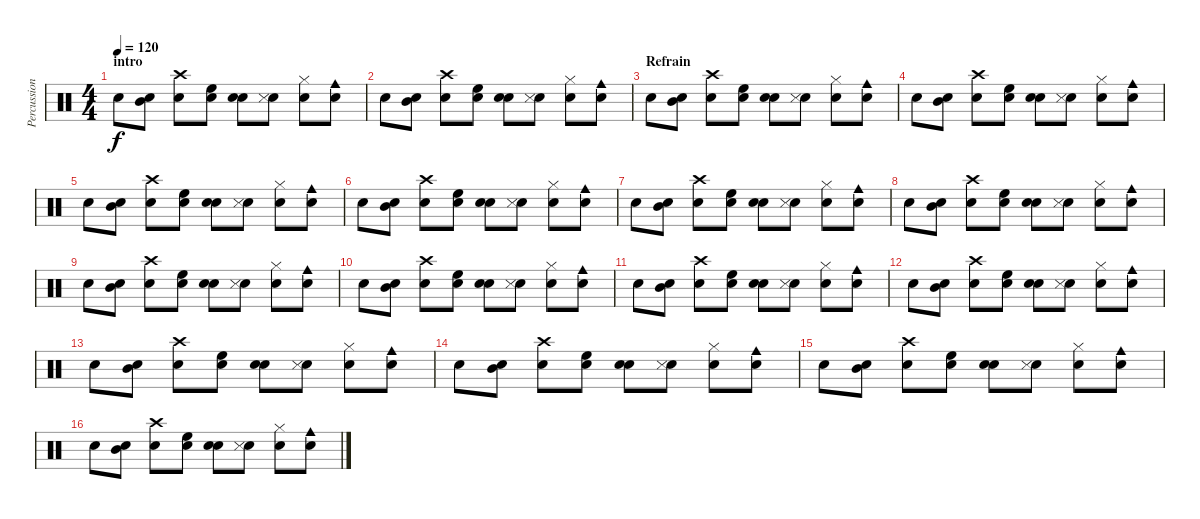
\track ("Percussions" "Percussion") {instrument percussion}
\staff {score}
\articulation defaults
\ts (4 4)
\section ("" "intro")
\tempo 120
\clef neutral
\ks c "Snare (hit) 2".8{dy f}
("Snare (hit) 2" "Mid Tom (hit)").8 ("Snare (hit) 2" "Crash high (hit)").8 ("Snare (hit) 2" "High Floor Tom (hit)").8 ("Snare (hit) 2" "Snare (hit) 2").8 ("Snare (hit) 2" "Snare (side stick) 3").8 ("Snare (hit) 2" "Hi-Hat (closed)").8 ("Snare (hit) 2" "Cowbell medium (hit)").8 |
"Snare (hit) 2".8 ("Snare (hit) 2" "Mid Tom (hit)").8 ("Snare (hit) 2" "Crash high (hit)").8 ("Snare (hit) 2" "High Floor Tom (hit)").8 ("Snare (hit) 2" "Snare (hit) 2").8 ("Snare (hit) 2" "Snare (side stick) 3").8 ("Snare (hit) 2" "Hi-Hat (closed)").8 ("Snare (hit) 2" "Cowbell medium (hit)").8 |
\section ("" "Refrain")
"Snare (hit) 2".8 ("Snare (hit) 2" "Mid Tom (hit)").8 ("Snare (hit) 2" "Crash high (hit)").8 ("Snare (hit) 2" "High Floor Tom (hit)").8 ("Snare (hit) 2" "Snare (hit) 2").8 ("Snare (hit) 2" "Snare (side stick) 3").8 ("Snare (hit) 2" "Hi-Hat (closed)").8 ("Snare (hit) 2" "Cowbell medium (hit)").8 |
"Snare (hit) 2".8 ("Snare (hit) 2" "Mid Tom (hit)").8 ("Snare (hit) 2" "Crash high (hit)").8 ("Snare (hit) 2" "High Floor Tom (hit)").8 ("Snare (hit) 2" "Snare (hit) 2").8 ("Snare (hit) 2" "Snare (side stick) 3").8 ("Snare (hit) 2" "Hi-Hat (closed)").8 ("Snare (hit) 2" "Cowbell medium (hit)").8 |
"Snare (hit) 2".8 ("Snare (hit) 2" "Mid Tom (hit)").8 ("Snare (hit) 2" "Crash high (hit)").8 ("Snare (hit) 2" "High Floor Tom (hit)").8 ("Snare (hit) 2" "Snare (hit) 2").8 ("Snare (hit) 2" "Snare (side stick) 3").8 ("Snare (hit) 2" "Hi-Hat (closed)").8 ("Snare (hit) 2" "Cowbell medium (hit)").8 |
"Snare (hit) 2".8 ("Snare (hit) 2" "Mid Tom (hit)").8 ("Snare (hit) 2" "Crash high (hit)").8 ("Snare (hit) 2" "High Floor Tom (hit)").8 ("Snare (hit) 2" "Snare (hit) 2").8 ("Snare (hit) 2" "Snare (side stick) 3").8 ("Snare (hit) 2" "Hi-Hat (closed)").8 ("Snare (hit) 2" "Cowbell medium (hit)").8 |
"Snare (hit) 2".8 ("Snare (hit) 2" "Mid Tom (hit)").8 ("Snare (hit) 2" "Crash high (hit)").8 ("Snare (hit) 2" "High Floor Tom (hit)").8 ("Snare (hit) 2" "Snare (hit) 2").8 ("Snare (hit) 2" "Snare (side stick) 3").8 ("Snare (hit) 2" "Hi-Hat (closed)").8 ("Snare (hit) 2" "Cowbell medium (hit)").8 |
"Snare (hit) 2".8 ("Snare (hit) 2" "Mid Tom (hit)").8 ("Snare (hit) 2" "Crash high (hit)").8 ("Snare (hit) 2" "High Floor Tom (hit)").8 ("Snare (hit) 2" "Snare (hit) 2").8 ("Snare (hit) 2" "Snare (side stick) 3").8 ("Snare (hit) 2" "Hi-Hat (closed)").8 ("Snare (hit) 2" "Cowbell medium (hit)").8 |
"Snare (hit) 2".8 ("Snare (hit) 2" "Mid Tom (hit)").8 ("Snare (hit) 2" "Crash high (hit)").8 ("Snare (hit) 2" "High Floor Tom (hit)").8 ("Snare (hit) 2" "Snare (hit) 2").8 ("Snare (hit) 2" "Snare (side stick) 3").8 ("Snare (hit) 2" "Hi-Hat (closed)").8 ("Snare (hit) 2" "Cowbell medium (hit)").8 |
"Snare (hit) 2".8 ("Snare (hit) 2" "Mid Tom (hit)").8 ("Snare (hit) 2" "Crash high (hit)").8 ("Snare (hit) 2" "High Floor Tom (hit)").8 ("Snare (hit) 2" "Snare (hit) 2").8 ("Snare (hit) 2" "Snare (side stick) 3").8 ("Snare (hit) 2" "Hi-Hat (closed)").8 ("Snare (hit) 2" "Cowbell medium (hit)").8 |
"Snare (hit) 2".8 ("Snare (hit) 2" "Mid Tom (hit)").8 ("Snare (hit) 2" "Crash high (hit)").8 ("Snare (hit) 2" "High Floor Tom (hit)").8 ("Snare (hit) 2" "Snare (hit) 2").8 ("Snare (hit) 2" "Snare (side stick) 3").8 ("Snare (hit) 2" "Hi-Hat (closed)").8 ("Snare (hit) 2" "Cowbell medium (hit)").8 |
"Snare (hit) 2".8 ("Snare (hit) 2" "Mid Tom (hit)").8 ("Snare (hit) 2" "Crash high (hit)").8 ("Snare (hit) 2" "High Floor Tom (hit)").8 ("Snare (hit) 2" "Snare (hit) 2").8 ("Snare (hit) 2" "Snare (side stick) 3").8 ("Snare (hit) 2" "Hi-Hat (closed)").8 ("Snare (hit) 2" "Cowbell medium (hit)").8 |
"Snare (hit) 2".8 ("Snare (hit) 2" "Mid Tom (hit)").8 ("Snare (hit) 2" "Crash high (hit)").8 ("Snare (hit) 2" "High Floor Tom (hit)").8 ("Snare (hit) 2" "Snare (hit) 2").8 ("Snare (hit) 2" "Snare (side stick) 3").8 ("Snare (hit) 2" "Hi-Hat (closed)").8 ("Snare (hit) 2" "Cowbell medium (hit)").8 |
"Snare (hit) 2".8 ("Snare (hit) 2" "Mid Tom (hit)").8 ("Snare (hit) 2" "Crash high (hit)").8 ("Snare (hit) 2" "High Floor Tom (hit)").8 ("Snare (hit) 2" "Snare (hit) 2").8 ("Snare (hit) 2" "Snare (side stick) 3").8 ("Snare (hit) 2" "Hi-Hat (closed)").8 ("Snare (hit) 2" "Cowbell medium (hit)").8 |
"Snare (hit) 2".8 ("Snare (hit) 2" "Mid Tom (hit)").8 ("Snare (hit) 2" "Crash high (hit)").8 ("Snare (hit) 2" "High Floor Tom (hit)").8 ("Snare (hit) 2" "Snare (hit) 2").8 ("Snare (hit) 2" "Snare (side stick) 3").8 ("Snare (hit) 2" "Hi-Hat (closed)").8 ("Snare (hit) 2" "Cowbell medium (hit)").8 |
"Snare (hit) 2".8 ("Snare (hit) 2" "Mid Tom (hit)").8 ("Snare (hit) 2" "Crash high (hit)").8 ("Snare (hit) 2" "High Floor Tom (hit)").8 ("Snare (hit) 2" "Snare (hit) 2").8 ("Snare (hit) 2" "Snare (side stick) 3").8 ("Snare (hit) 2" "Hi-Hat (closed)").8 ("Snare (hit) 2" "Cowbell medium (hit)").8
